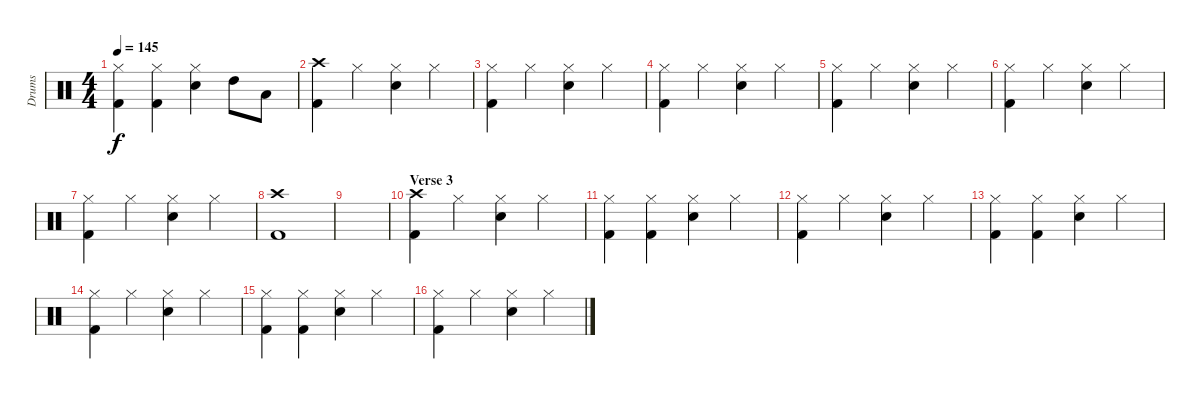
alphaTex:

\track ("Drums" "Drums") {instrument percussion}
\staff {score}
\articulation defaults
\ts (4 4)
\tempo 145
\clef neutral
\ks c
("Hi-Hat (closed)" "Kick (hit) 2").4{dy f} ("Hi-Hat (closed)" "Kick (hit) 2").4 ("Hi-Hat (closed)" "Electric Snare (hit)").4 "High Tom (hit)".8 "Low Tom (hit)".8 |
("Crash high (hit)" "Kick (hit) 2").4 "Hi-Hat (closed)".4 ("Hi-Hat (closed)" "Electric Snare (hit)").4 "Hi-Hat (closed)".4 |
("Hi-Hat (closed)" "Kick (hit) 2").4 "Hi-Hat (closed)".4 ("Hi-Hat (closed)" "Electric Snare (hit)").4 "Hi-Hat (closed)".4 |
("Hi-Hat (closed)" "Kick (hit) 2").4 "Hi-Hat (closed)".4 ("Hi-Hat (closed)" "Electric Snare (hit)").4 "Hi-Hat (closed)".4 |
("Hi-Hat (closed)" "Kick (hit) 2").4 "Hi-Hat (closed)".4 ("Hi-Hat (closed)" "Electric Snare (hit)").4 "Hi-Hat (closed)".4 |
("Hi-Hat (closed)" "Kick (hit) 2").4 "Hi-Hat (closed)".4 ("Hi-Hat (closed)" "Electric Snare (hit)").4 "Hi-Hat (closed)".4 |
("Hi-Hat (closed)" "Kick (hit) 2").4 "Hi-Hat (closed)".4 ("Hi-Hat (closed)" "Electric Snare (hit)").4 "Hi-Hat (closed)".4 |
("Crash high (hit)" "Kick (hit) 2").1 |
|
\section ("" "Verse 3")
("Crash high (hit)" "Kick (hit) 2").4 "Hi-Hat (closed)".4 ("Hi-Hat (closed)" "Electric Snare (hit)").4 "Hi-Hat (closed)".4 |
("Hi-Hat (closed)" "Kick (hit) 2").4 ("Hi-Hat (closed)" "Kick (hit) 2").4 ("Hi-Hat (closed)" "Electric Snare (hit)").4 "Hi-Hat (closed)".4 |
("Hi-Hat (closed)" "Kick (hit) 2").4 "Hi-Hat (closed)".4 ("Hi-Hat (closed)" "Electric Snare (hit)").4 "Hi-Hat (closed)".4 |
("Hi-Hat (closed)" "Kick (hit) 2").4 ("Hi-Hat (closed)" "Kick (hit) 2").4 ("Hi-Hat (closed)" "Electric Snare (hit)").4 "Hi-Hat (closed)".4 |
("Hi-Hat (closed)" "Kick (hit) 2").4 "Hi-Hat (closed)".4 ("Hi-Hat (closed)" "Electric Snare (hit)").4 "Hi-Hat (closed)".4 |
("Hi-Hat (closed)" "Kick (hit) 2").4 ("Hi-Hat (closed)" "Kick (hit) 2").4 ("Hi-Hat (closed)" "Electric Snare (hit)").4 "Hi-Hat (closed)".4 |
("Hi-Hat (closed)" "Kick (hit) 2").4 "Hi-Hat (closed)".4 ("Hi-Hat (closed)" "Electric Snare (hit)").4 "Hi-Hat (closed)".4
